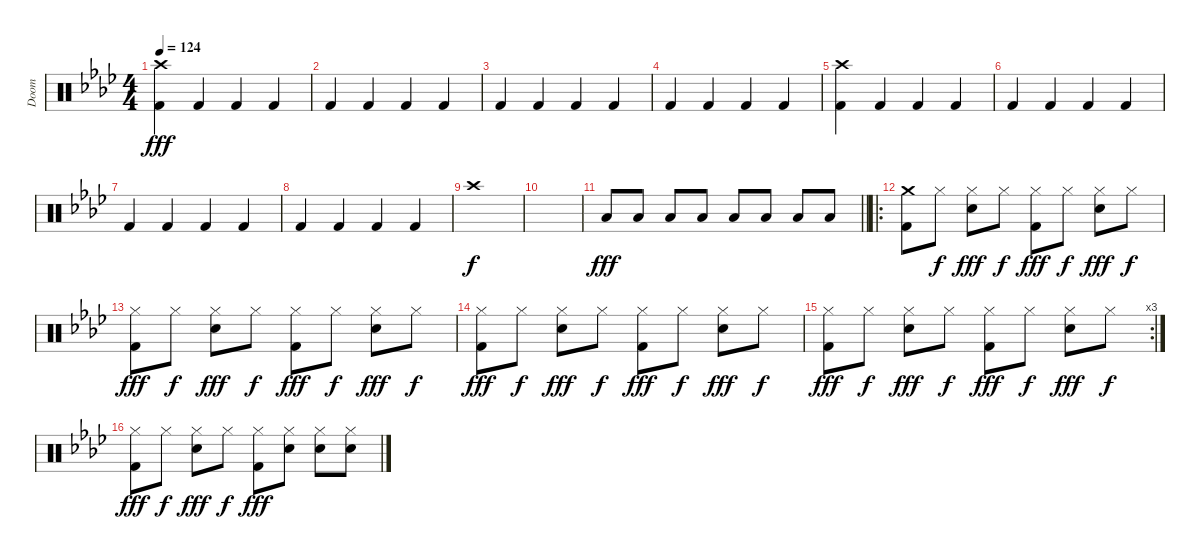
\track ("Doom" "Doom") {instrument percussion}
\staff {score}
\articulation defaults
\ts (4 4)
\tempo 124
\clef neutral
\ks ab
("Crash high (hit)" "Kick (hit) 2").4{dy fff} "Kick (hit) 2".4 "Kick (hit) 2".4 "Kick (hit) 2".4 |
"Kick (hit) 2".4 "Kick (hit) 2".4 "Kick (hit) 2".4 "Kick (hit) 2".4 |
"Kick (hit) 2".4 "Kick (hit) 2".4 "Kick (hit) 2".4 "Kick (hit) 2".4 |
"Kick (hit) 2".4 "Kick (hit) 2".4 "Kick (hit) 2".4 "Kick (hit) 2".4 |
("Crash high (hit)" "Kick (hit) 2").4 "Kick (hit) 2".4 "Kick (hit) 2".4 "Kick (hit) 2".4 |
"Kick (hit) 2".4 "Kick (hit) 2".4 "Kick (hit) 2".4 "Kick (hit) 2".4 |
"Kick (hit) 2".4 "Kick (hit) 2".4 "Kick (hit) 2".4 "Kick (hit) 2".4 |
"Kick (hit) 2".4 "Kick (hit) 2".4 "Kick (hit) 2".4 "Kick (hit) 2".4 |
"Crash high (hit)".1{dy f} |
|
\barLineRight lightlight "Low Floor Tom (hit)".8{dy fff} "Low Floor Tom (hit)".8 "Low Floor Tom (hit)".8 "Low Floor Tom (hit)".8 "Low Floor Tom (hit)".8 "Low Floor Tom (hit)".8 "Low Floor Tom (hit)".8 "Low Floor Tom (hit)".8
|
\ro
("Crash medium (hit)" "Kick (hit) 2").8 "Hi-Hat (closed)".8{dy f} ("Hi-Hat (closed)" "Snare (hit) 2").8{dy fff} "Hi-Hat (closed)".8{dy f} ("Hi-Hat (closed)" "Kick (hit) 2").8{dy fff} "Hi-Hat (closed)".8{dy f} ("Hi-Hat (closed)" "Snare (hit) 2").8{dy fff} "Hi-Hat (closed)".8{dy f} |
("Hi-Hat (closed)" "Kick (hit) 2").8{dy fff} "Hi-Hat (closed)".8{dy f} ("Hi-Hat (closed)" "Snare (hit) 2").8{dy fff} "Hi-Hat (closed)".8{dy f} ("Hi-Hat (closed)" "Kick (hit) 2").8{dy fff} "Hi-Hat (closed)".8{dy f} ("Hi-Hat (closed)" "Snare (hit) 2").8{dy fff} "Hi-Hat (closed)".8{dy f} |
("Hi-Hat (closed)" "Kick (hit) 2").8{dy fff} "Hi-Hat (closed)".8{dy f} ("Hi-Hat (closed)" "Snare (hit) 2").8{dy fff} "Hi-Hat (closed)".8{dy f} ("Hi-Hat (closed)" "Kick (hit) 2").8{dy fff} "Hi-Hat (closed)".8{dy f} ("Hi-Hat (closed)" "Snare (hit) 2").8{dy fff} "Hi-Hat (closed)".8{dy f} |
\rc 3
("Hi-Hat (closed)" "Kick (hit) 2").8{dy fff} "Hi-Hat (closed)".8{dy f} ("Hi-Hat (closed)" "Snare (hit) 2").8{dy fff} "Hi-Hat (closed)".8{dy f} ("Hi-Hat (closed)" "Kick (hit) 2").8{dy fff} "Hi-Hat (closed)".8{dy f} ("Hi-Hat (closed)" "Snare (hit) 2").8{dy fff} "Hi-Hat (closed)".8{dy f} |
("Hi-Hat (closed)" "Kick (hit) 2").8{dy fff} "Hi-Hat (closed)".8{dy f} ("Hi-Hat (closed)" "Snare (hit) 2").8{dy fff} "Hi-Hat (closed)".8{dy f} ("Hi-Hat (closed)" "Kick (hit) 2").8{dy fff} ("Hi-Hat (closed)" "Snare (hit) 2").8 ("Hi-Hat (closed)" "Snare (hit) 2").8 ("Hi-Hat (closed)" "Snare (hit) 2").8
